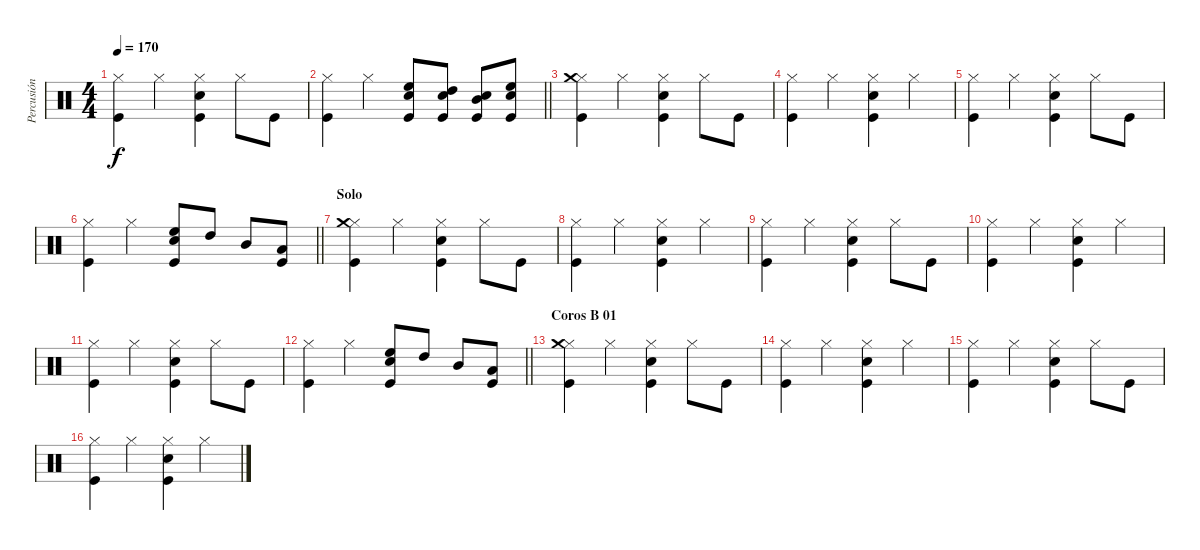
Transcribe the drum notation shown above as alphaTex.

\track ("Percusión" "Percusión") {instrument percussion}
\staff {score}
\articulation defaults
\ts (4 4)
\tempo 170
\clef neutral
\ks c
("Hi-Hat (closed)" "Kick (hit)").4{dy f} "Hi-Hat (closed)".4 ("Hi-Hat (closed)" "Snare (hit) 2" "Kick (hit)").4 "Hi-Hat (closed)".8 "Kick (hit)".8 |
\barLineRight lightlight
("Hi-Hat (closed)" "Kick (hit)").4 "Hi-Hat (closed)".4 ("Snare (hit) 2" "High Floor Tom (hit)" "Kick (hit)").8 ("Snare (hit) 2" "High Tom (hit)" "Kick (hit)").8 ("Snare (hit) 2" "Mid Tom (hit)" "Kick (hit)").8 ("Snare (hit) 2" "High Floor Tom (hit)" "Kick (hit)").8 |
("Hi-Hat (closed)" "Crash medium (hit)" "Kick (hit)").4 "Hi-Hat (closed)".4 ("Hi-Hat (closed)" "Snare (hit) 2" "Kick (hit)").4 "Hi-Hat (closed)".8 "Kick (hit)".8 |
("Hi-Hat (closed)" "Kick (hit)").4 "Hi-Hat (closed)".4 ("Hi-Hat (closed)" "Snare (hit) 2" "Kick (hit)").4 "Hi-Hat (closed)".4 |
("Hi-Hat (closed)" "Kick (hit)").4 "Hi-Hat (closed)".4 ("Hi-Hat (closed)" "Snare (hit) 2" "Kick (hit)").4 "Hi-Hat (closed)".8 "Kick (hit)".8 |
\barLineRight lightlight
("Hi-Hat (closed)" "Kick (hit)").4 "Hi-Hat (closed)".4 ("High Floor Tom (hit)" "Snare (hit) 2" "Kick (hit)").8 "High Tom (hit)".8 "Mid Tom (hit)".8 ("Low Tom (hit)" "Kick (hit)").8 |
\section ("" "Solo")
("Hi-Hat (closed)" "Crash medium (hit)" "Kick (hit)").4 "Hi-Hat (closed)".4 ("Hi-Hat (closed)" "Snare (hit) 2" "Kick (hit)").4 "Hi-Hat (closed)".8 "Kick (hit)".8 |
("Hi-Hat (closed)" "Kick (hit)").4 "Hi-Hat (closed)".4 ("Hi-Hat (closed)" "Snare (hit) 2" "Kick (hit)").4 "Hi-Hat (closed)".4 |
("Hi-Hat (closed)" "Kick (hit)").4 "Hi-Hat (closed)".4 ("Hi-Hat (closed)" "Snare (hit) 2" "Kick (hit)").4 "Hi-Hat (closed)".8 "Kick (hit)".8 |
("Hi-Hat (closed)" "Kick (hit)").4 "Hi-Hat (closed)".4 ("Hi-Hat (closed)" "Snare (hit) 2" "Kick (hit)").4 "Hi-Hat (closed)".4 |
("Hi-Hat (closed)" "Kick (hit)").4 "Hi-Hat (closed)".4 ("Hi-Hat (closed)" "Snare (hit) 2" "Kick (hit)").4 "Hi-Hat (closed)".8 "Kick (hit)".8 |
\barLineRight lightlight
("Hi-Hat (closed)" "Kick (hit)").4 "Hi-Hat (closed)".4 ("High Floor Tom (hit)" "Snare (hit) 2" "Kick (hit)").8 "High Tom (hit)".8 "Mid Tom (hit)".8 ("Low Tom (hit)" "Kick (hit)").8 |
\section ("" "Coros B 01")
("Hi-Hat (closed)" "Crash medium (hit)" "Kick (hit)").4 "Hi-Hat (closed)".4 ("Hi-Hat (closed)" "Snare (hit) 2" "Kick (hit)").4 "Hi-Hat (closed)".8 "Kick (hit)".8 |
("Hi-Hat (closed)" "Kick (hit)").4 "Hi-Hat (closed)".4 ("Hi-Hat (closed)" "Snare (hit) 2" "Kick (hit)").4 "Hi-Hat (closed)".4 |
("Hi-Hat (closed)" "Kick (hit)").4 "Hi-Hat (closed)".4 ("Hi-Hat (closed)" "Snare (hit) 2" "Kick (hit)").4 "Hi-Hat (closed)".8 "Kick (hit)".8 |
("Hi-Hat (closed)" "Kick (hit)").4 "Hi-Hat (closed)".4 ("Hi-Hat (closed)" "Snare (hit) 2" "Kick (hit)").4 "Hi-Hat (closed)".4
